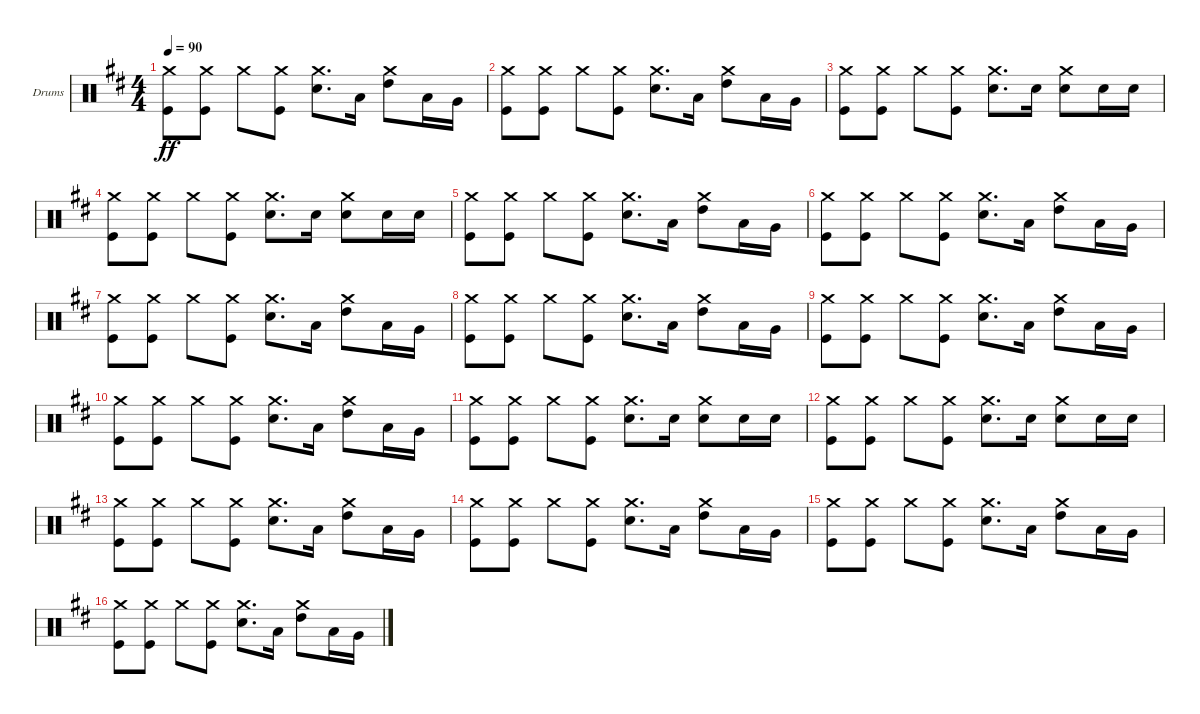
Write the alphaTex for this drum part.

\defaultSystemsLayout 4
\bracketExtendMode groupsimilarinstruments
\firstSystemTrackNameOrientation horizontal
\otherSystemsTrackNameOrientation horizontal
\track ("Drumkit" "Drums") {instrument percussion}
\staff {score}
\articulation defaults
\ts (4 4)
\tempo 90
\clef neutral
\scale
0.333333
\ks d
("Kick (hit)" "Crash medium (hit)").8{dy ff} ("Crash medium (hit)" "Kick (hit)").8 "Crash medium (hit)".8 ("Crash medium (hit)" "Kick (hit)").8 ("Crash medium (hit)" "Snare (hit) 2").8{d} "Low Tom (hit)".16 ("High Tom (hit)" "Crash medium (hit)").8 "Low Tom (hit)".16 "Very Low Tom (hit)".16 |
\scale
0.333333 ("Kick (hit)" "Crash medium (hit)").8 ("Crash medium (hit)" "Kick (hit)").8 "Crash medium (hit)".8 ("Crash medium (hit)" "Kick (hit)").8 ("Crash medium (hit)" "Snare (hit) 2").8{d} "Low Tom (hit)".16 ("High Tom (hit)" "Crash medium (hit)").8 "Low Tom (hit)".16 "Very Low Tom (hit)".16 |
\scale
0.333333 ("Kick (hit)" "Crash medium (hit)").8 ("Crash medium (hit)" "Kick (hit)").8 "Crash medium (hit)".8 ("Crash medium (hit)" "Kick (hit)").8 ("Crash medium (hit)" "Snare (hit) 2").8{d} "Snare (hit) 2".16 ("Crash medium (hit)" "Snare (hit) 2").8 "Snare (hit) 2".16 "Snare (hit) 2".16 |
\scale
0.333333 ("Kick (hit)" "Crash medium (hit)").8 ("Crash medium (hit)" "Kick (hit)").8 "Crash medium (hit)".8 ("Crash medium (hit)" "Kick (hit)").8 ("Crash medium (hit)" "Snare (hit) 2").8{d} "Snare (hit) 2".16 ("Crash medium (hit)" "Snare (hit) 2").8 "Snare (hit) 2".16 "Snare (hit) 2".16 |
\scale
0.333333 ("Kick (hit)" "Crash medium (hit)").8 ("Crash medium (hit)" "Kick (hit)").8 "Crash medium (hit)".8 ("Crash medium (hit)" "Kick (hit)").8 ("Crash medium (hit)" "Snare (hit) 2").8{d} "Low Tom (hit)".16 ("High Tom (hit)" "Crash medium (hit)").8 "Low Tom (hit)".16 "Very Low Tom (hit)".16 |
\scale
0.333333 ("Kick (hit)" "Crash medium (hit)").8 ("Crash medium (hit)" "Kick (hit)").8 "Crash medium (hit)".8 ("Crash medium (hit)" "Kick (hit)").8 ("Crash medium (hit)" "Snare (hit) 2").8{d} "Low Tom (hit)".16 ("High Tom (hit)" "Crash medium (hit)").8 "Low Tom (hit)".16 "Very Low Tom (hit)".16 |
\scale
0.333333 ("Kick (hit)" "Crash medium (hit)").8 ("Crash medium (hit)" "Kick (hit)").8 "Crash medium (hit)".8 ("Crash medium (hit)" "Kick (hit)").8 ("Crash medium (hit)" "Snare (hit) 2").8{d} "Low Tom (hit)".16 ("High Tom (hit)" "Crash medium (hit)").8 "Low Tom (hit)".16 "Very Low Tom (hit)".16 |
\scale
0.333333 ("Kick (hit)" "Crash medium (hit)").8 ("Crash medium (hit)" "Kick (hit)").8 "Crash medium (hit)".8 ("Crash medium (hit)" "Kick (hit)").8 ("Crash medium (hit)" "Snare (hit) 2").8{d} "Low Tom (hit)".16 ("High Tom (hit)" "Crash medium (hit)").8 "Low Tom (hit)".16 "Very Low Tom (hit)".16 |
\scale
0.333333 ("Kick (hit)" "Crash medium (hit)").8 ("Crash medium (hit)" "Kick (hit)").8 "Crash medium (hit)".8 ("Crash medium (hit)" "Kick (hit)").8 ("Crash medium (hit)" "Snare (hit) 2").8{d} "Low Tom (hit)".16 ("High Tom (hit)" "Crash medium (hit)").8 "Low Tom (hit)".16 "Very Low Tom (hit)".16 |
\scale
0.333333 ("Kick (hit)" "Crash medium (hit)").8 ("Crash medium (hit)" "Kick (hit)").8 "Crash medium (hit)".8 ("Crash medium (hit)" "Kick (hit)").8 ("Crash medium (hit)" "Snare (hit) 2").8{d} "Low Tom (hit)".16 ("High Tom (hit)" "Crash medium (hit)").8 "Low Tom (hit)".16 "Very Low Tom (hit)".16 |
\scale
0.333333 ("Kick (hit)" "Crash medium (hit)").8 ("Crash medium (hit)" "Kick (hit)").8 "Crash medium (hit)".8 ("Crash medium (hit)" "Kick (hit)").8 ("Crash medium (hit)" "Snare (hit) 2").8{d} "Snare (hit) 2".16 ("Crash medium (hit)" "Snare (hit) 2").8 "Snare (hit) 2".16 "Snare (hit) 2".16 |
\scale
0.333333 ("Kick (hit)" "Crash medium (hit)").8 ("Crash medium (hit)" "Kick (hit)").8 "Crash medium (hit)".8 ("Crash medium (hit)" "Kick (hit)").8 ("Crash medium (hit)" "Snare (hit) 2").8{d} "Snare (hit) 2".16 ("Crash medium (hit)" "Snare (hit) 2").8 "Snare (hit) 2".16 "Snare (hit) 2".16 |
\scale
0.333333 ("Kick (hit)" "Crash medium (hit)").8 ("Crash medium (hit)" "Kick (hit)").8 "Crash medium (hit)".8 ("Crash medium (hit)" "Kick (hit)").8 ("Crash medium (hit)" "Snare (hit) 2").8{d} "Low Tom (hit)".16 ("High Tom (hit)" "Crash medium (hit)").8 "Low Tom (hit)".16 "Very Low Tom (hit)".16 |
\scale
0.333333 ("Kick (hit)" "Crash medium (hit)").8 ("Crash medium (hit)" "Kick (hit)").8 "Crash medium (hit)".8 ("Crash medium (hit)" "Kick (hit)").8 ("Crash medium (hit)" "Snare (hit) 2").8{d} "Low Tom (hit)".16 ("High Tom (hit)" "Crash medium (hit)").8 "Low Tom (hit)".16 "Very Low Tom (hit)".16 |
\scale
0.333333 ("Kick (hit)" "Crash medium (hit)").8 ("Crash medium (hit)" "Kick (hit)").8 "Crash medium (hit)".8 ("Crash medium (hit)" "Kick (hit)").8 ("Crash medium (hit)" "Snare (hit) 2").8{d} "Low Tom (hit)".16 ("High Tom (hit)" "Crash medium (hit)").8 "Low Tom (hit)".16 "Very Low Tom (hit)".16 |
\scale
0.333333 ("Kick (hit)" "Crash medium (hit)").8 ("Crash medium (hit)" "Kick (hit)").8 "Crash medium (hit)".8 ("Crash medium (hit)" "Kick (hit)").8 ("Crash medium (hit)" "Snare (hit) 2").8{d} "Low Tom (hit)".16 ("High Tom (hit)" "Crash medium (hit)").8 "Low Tom (hit)".16 "Very Low Tom (hit)".16
